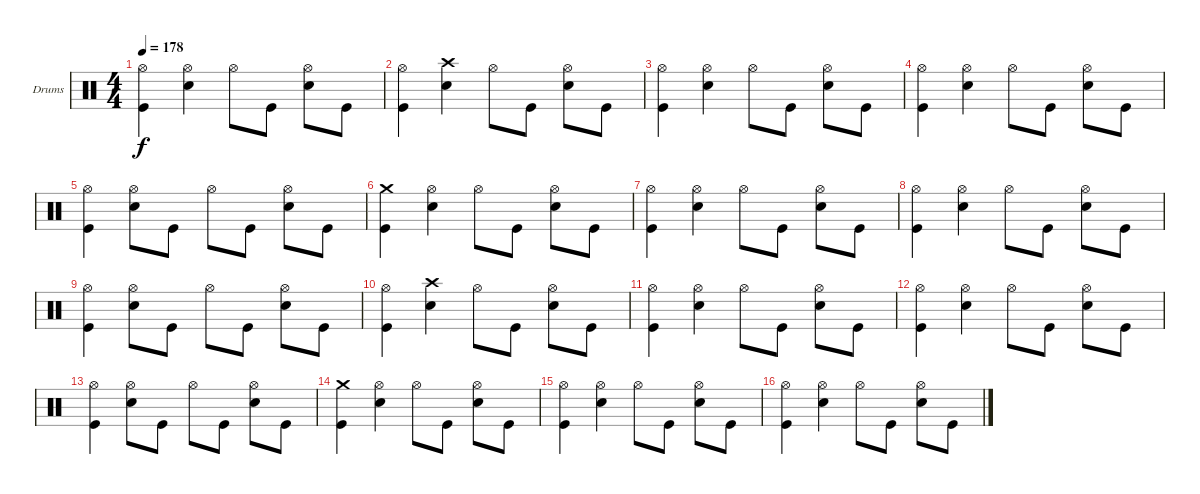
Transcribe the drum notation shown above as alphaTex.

\bracketExtendMode groupsimilarinstruments
\firstSystemTrackNameOrientation horizontal
\otherSystemsTrackNameOrientation horizontal
\track ("Drumkit" "Drums") {instrument percussion}
\staff {score}
\articulation defaults
\ts (4 4)
\tempo 178
\clef neutral
\ks c
("Hi-Hat (open)" "Kick (hit)").4{dy f} ("Hi-Hat (open)" "Snare (hit) 2").4 "Hi-Hat (open)".8 "Kick (hit)".8 ("Hi-Hat (open)" "Snare (hit) 2").8 "Kick (hit)".8 |
("Hi-Hat (open)" "Kick (hit)").4 ("Crash high (hit)" "Snare (hit) 2").4 "Hi-Hat (open)".8 "Kick (hit)".8 ("Hi-Hat (open)" "Snare (hit) 2").8 "Kick (hit)".8 |
("Hi-Hat (open)" "Kick (hit)").4 ("Hi-Hat (open)" "Snare (hit) 2").4 "Hi-Hat (open)".8 "Kick (hit)".8 ("Hi-Hat (open)" "Snare (hit) 2").8 "Kick (hit)".8 |
("Hi-Hat (open)" "Kick (hit)").4 ("Hi-Hat (open)" "Snare (hit) 2").4 "Hi-Hat (open)".8 "Kick (hit)".8 ("Hi-Hat (open)" "Snare (hit) 2").8 "Kick (hit)".8 |
("Hi-Hat (open)" "Kick (hit)").4 ("Hi-Hat (open)" "Snare (hit) 2").8 "Kick (hit)".8 "Hi-Hat (open)".8 "Kick (hit)".8 ("Hi-Hat (open)" "Snare (hit) 2").8 "Kick (hit)".8 |
("Crash medium (hit)" "Kick (hit)").4 ("Hi-Hat (open)" "Snare (hit) 2").4 "Hi-Hat (open)".8 "Kick (hit)".8 ("Hi-Hat (open)" "Snare (hit) 2").8 "Kick (hit)".8 |
("Hi-Hat (open)" "Kick (hit)").4 ("Hi-Hat (open)" "Snare (hit) 2").4 "Hi-Hat (open)".8 "Kick (hit)".8 ("Hi-Hat (open)" "Snare (hit) 2").8 "Kick (hit)".8 |
("Hi-Hat (open)" "Kick (hit)").4 ("Hi-Hat (open)" "Snare (hit) 2").4 "Hi-Hat (open)".8 "Kick (hit)".8 ("Hi-Hat (open)" "Snare (hit) 2").8 "Kick (hit)".8 |
("Hi-Hat (open)" "Kick (hit)").4 ("Hi-Hat (open)" "Snare (hit) 2").8 "Kick (hit)".8 "Hi-Hat (open)".8 "Kick (hit)".8 ("Hi-Hat (open)" "Snare (hit) 2").8 "Kick (hit)".8 |
("Hi-Hat (open)" "Kick (hit)").4 ("Crash high (hit)" "Snare (hit) 2").4 "Hi-Hat (open)".8 "Kick (hit)".8 ("Hi-Hat (open)" "Snare (hit) 2").8 "Kick (hit)".8 |
("Hi-Hat (open)" "Kick (hit)").4 ("Hi-Hat (open)" "Snare (hit) 2").4 "Hi-Hat (open)".8 "Kick (hit)".8 ("Hi-Hat (open)" "Snare (hit) 2").8 "Kick (hit)".8 |
("Hi-Hat (open)" "Kick (hit)").4 ("Hi-Hat (open)" "Snare (hit) 2").4 "Hi-Hat (open)".8 "Kick (hit)".8 ("Hi-Hat (open)" "Snare (hit) 2").8 "Kick (hit)".8 |
("Hi-Hat (open)" "Kick (hit)").4 ("Hi-Hat (open)" "Snare (hit) 2").8 "Kick (hit)".8 "Hi-Hat (open)".8 "Kick (hit)".8 ("Hi-Hat (open)" "Snare (hit) 2").8 "Kick (hit)".8 |
("Crash medium (hit)" "Kick (hit)").4 ("Hi-Hat (open)" "Snare (hit) 2").4 "Hi-Hat (open)".8 "Kick (hit)".8 ("Hi-Hat (open)" "Snare (hit) 2").8 "Kick (hit)".8 |
("Hi-Hat (open)" "Kick (hit)").4 ("Hi-Hat (open)" "Snare (hit) 2").4 "Hi-Hat (open)".8 "Kick (hit)".8 ("Hi-Hat (open)" "Snare (hit) 2").8 "Kick (hit)".8 |
("Hi-Hat (open)" "Kick (hit)").4 ("Hi-Hat (open)" "Snare (hit) 2").4 "Hi-Hat (open)".8 "Kick (hit)".8 ("Hi-Hat (open)" "Snare (hit) 2").8 "Kick (hit)".8
